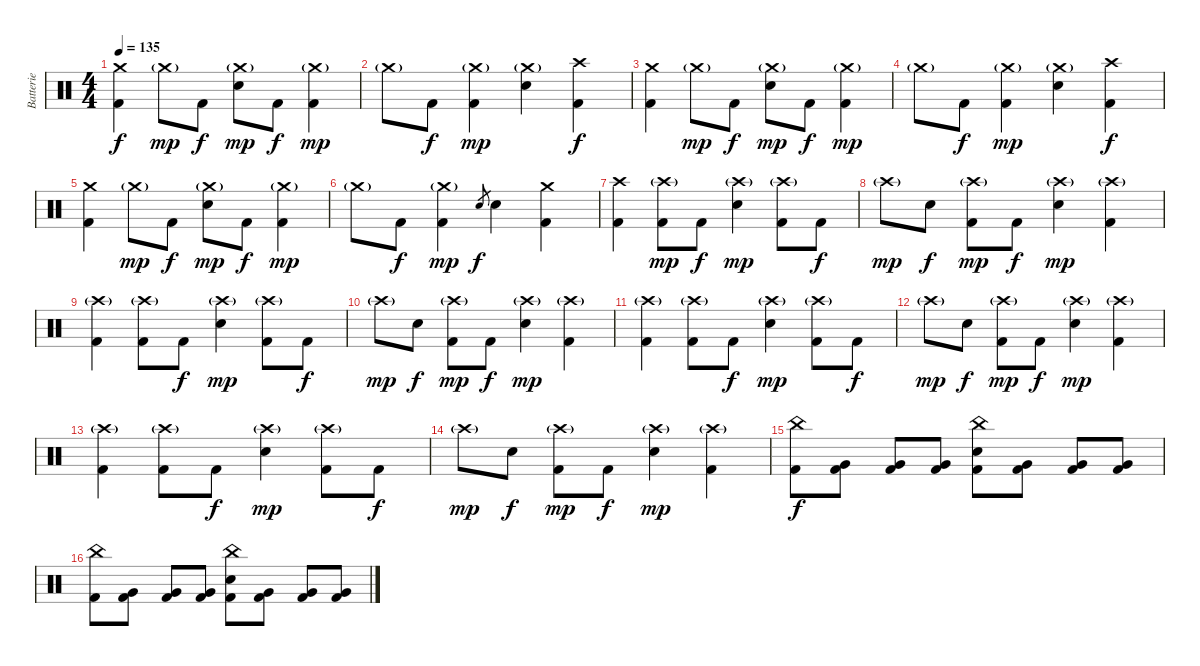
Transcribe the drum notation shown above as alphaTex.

\track ("Batterie" "Batterie") {instrument percussion}
\staff {score}
\articulation defaults
\ts (4 4)
\tempo 135
\clef neutral
\ks c
("Crash medium (hit)" "Kick (hit) 2").4{dy f} "Crash medium (hit)"{g}.8{dy mp} "Kick (hit) 2".8{dy f} ("Crash medium (hit)"{g} "Electric Snare (hit)").8{dy mp} "Kick (hit) 2".8{dy f} ("Crash medium (hit)"{g} "Kick (hit) 2").4{dy mp} |
"Crash medium (hit)"{g}.8 "Kick (hit) 2".8{dy f} ("Crash medium (hit)"{g} "Kick (hit) 2").4{dy mp} ("Crash medium (hit)"{g} "Electric Snare (hit)").4 ("Crash high (hit)" "Kick (hit) 2").4{dy f} |
("Crash medium (hit)" "Kick (hit) 2").4 "Crash medium (hit)"{g}.8{dy mp} "Kick (hit) 2".8{dy f} ("Crash medium (hit)"{g} "Electric Snare (hit)").8{dy mp} "Kick (hit) 2".8{dy f} ("Crash medium (hit)"{g} "Kick (hit) 2").4{dy mp} |
"Crash medium (hit)"{g}.8 "Kick (hit) 2".8{dy f} ("Crash medium (hit)"{g} "Kick (hit) 2").4{dy mp} ("Crash medium (hit)"{g} "Electric Snare (hit)").4 ("Crash high (hit)" "Kick (hit) 2").4{dy f} |
("Crash medium (hit)" "Kick (hit) 2").4 "Crash medium (hit)"{g}.8{dy mp} "Kick (hit) 2".8{dy f} ("Crash medium (hit)"{g} "Electric Snare (hit)").8{dy mp} "Kick (hit) 2".8{dy f} ("Crash medium (hit)"{g} "Kick (hit) 2").4{dy mp} |
"Crash medium (hit)"{g}.8 "Kick (hit) 2".8{dy f} ("Crash medium (hit)"{g} "Kick (hit) 2").4{dy mp} "Electric Snare (hit)".8{gr dy f} "Electric Snare (hit)".4 ("Crash medium (hit)" "Kick (hit) 2").4 |
("Crash high (hit)" "Kick (hit) 2").4 ("Crash high (hit)"{g} "Kick (hit) 2").8{dy mp} "Kick (hit) 2".8{dy f} ("Crash high (hit)"{g} "Electric Snare (hit)").4{dy mp} ("Crash high (hit)"{g} "Kick (hit) 2").8 "Kick (hit) 2".8{dy f} |
"Crash high (hit)"{g}.8{dy mp} "Electric Snare (hit)".8{dy f} ("Crash high (hit)"{g} "Kick (hit) 2").8{dy mp} "Kick (hit) 2".8{dy f} ("Crash high (hit)"{g} "Electric Snare (hit)").4{dy mp} ("Crash high (hit)"{g} "Kick (hit) 2").4 |
("Crash high (hit)"{g} "Kick (hit) 2").4 ("Crash high (hit)"{g} "Kick (hit) 2").8 "Kick (hit) 2".8{dy f} ("Crash high (hit)"{g} "Electric Snare (hit)").4{dy mp} ("Crash high (hit)"{g} "Kick (hit) 2").8 "Kick (hit) 2".8{dy f} |
"Crash high (hit)"{g}.8{dy mp} "Electric Snare (hit)".8{dy f} ("Crash high (hit)"{g} "Kick (hit) 2").8{dy mp} "Kick (hit) 2".8{dy f} ("Crash high (hit)"{g} "Electric Snare (hit)").4{dy mp} ("Crash high (hit)"{g} "Kick (hit) 2").4 |
("Crash high (hit)"{g} "Kick (hit) 2").4 ("Crash high (hit)"{g} "Kick (hit) 2").8 "Kick (hit) 2".8{dy f} ("Crash high (hit)"{g} "Electric Snare (hit)").4{dy mp} ("Crash high (hit)"{g} "Kick (hit) 2").8 "Kick (hit) 2".8{dy f} |
"Crash high (hit)"{g}.8{dy mp} "Electric Snare (hit)".8{dy f} ("Crash high (hit)"{g} "Kick (hit) 2").8{dy mp} "Kick (hit) 2".8{dy f} ("Crash high (hit)"{g} "Electric Snare (hit)").4{dy mp} ("Crash high (hit)"{g} "Kick (hit) 2").4 |
("Crash high (hit)"{g} "Kick (hit) 2").4 ("Crash high (hit)"{g} "Kick (hit) 2").8 "Kick (hit) 2".8{dy f} ("Crash high (hit)"{g} "Electric Snare (hit)").4{dy mp} ("Crash high (hit)"{g} "Kick (hit) 2").8 "Kick (hit) 2".8{dy f} |
"Crash high (hit)"{g}.8{dy mp} "Electric Snare (hit)".8{dy f} ("Crash high (hit)"{g} "Kick (hit) 2").8{dy mp} "Kick (hit) 2".8{dy f} ("Crash high (hit)"{g} "Electric Snare (hit)").4{dy mp} ("Crash high (hit)"{g} "Kick (hit) 2").4 |
("China (hit)" "Kick (hit) 2").8{dy f} ("Very Low Tom (hit)" "Kick (hit) 2").8 ("Very Low Tom (hit)" "Kick (hit) 2").8 ("Very Low Tom (hit)" "Kick (hit) 2").8 ("China (hit)" "Electric Snare (hit)" "Kick (hit) 2").8 ("Very Low Tom (hit)" "Kick (hit) 2").8 ("Very Low Tom (hit)" "Kick (hit) 2").8 ("Very Low Tom (hit)" "Kick (hit) 2").8 |
("China (hit)" "Kick (hit) 2").8 ("Very Low Tom (hit)" "Kick (hit) 2").8 ("Very Low Tom (hit)" "Kick (hit) 2").8 ("Very Low Tom (hit)" "Kick (hit) 2").8 ("China (hit)" "Electric Snare (hit)" "Kick (hit) 2").8 ("Very Low Tom (hit)" "Kick (hit) 2").8 ("Very Low Tom (hit)" "Kick (hit) 2").8 ("Very Low Tom (hit)" "Kick (hit) 2").8
